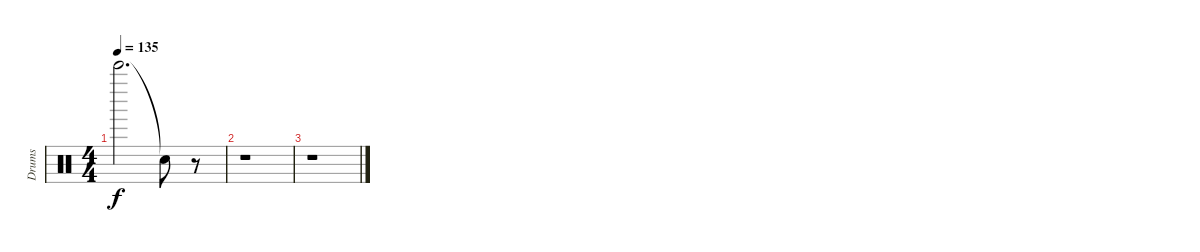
\track ("Drums" "Drums") {instrument percussion}
\staff {score}
\articulation defaults
\ts (4 4)
\tempo 135
\clef neutral
\ks c "Bell Tree (hit)".2{d dy f} "Snare (hit)"{t}.8
r.8 |
r.1 |
r.1
